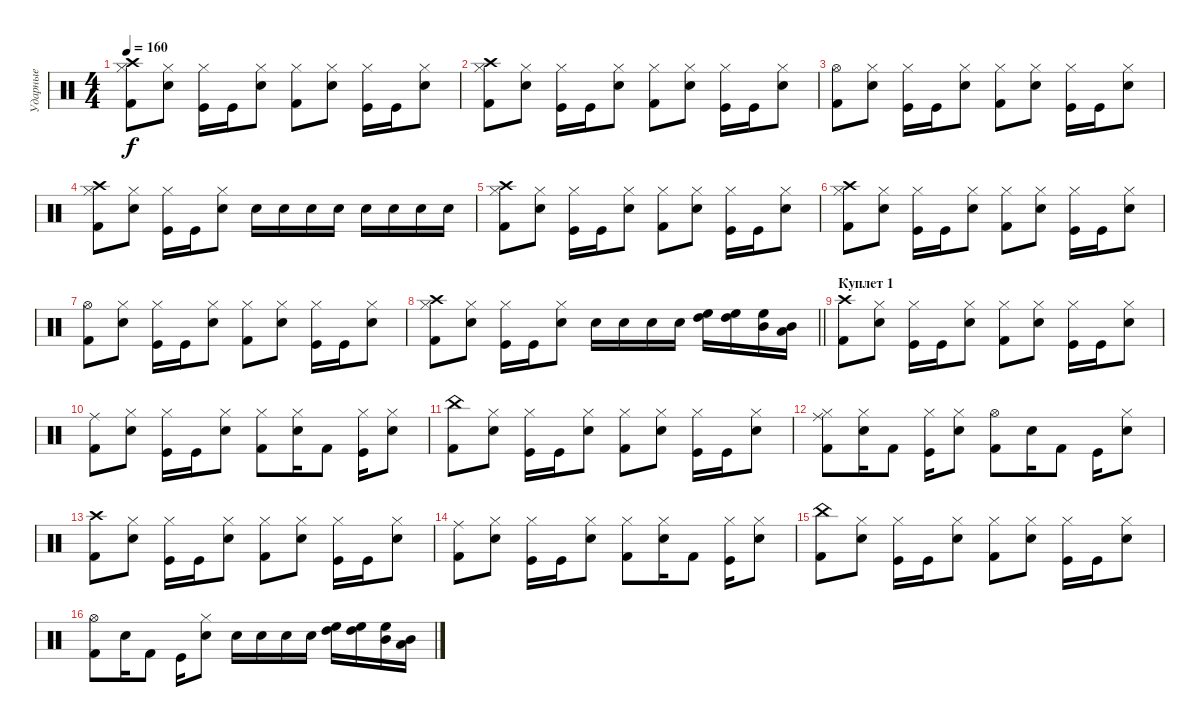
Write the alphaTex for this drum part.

\track ("Ударные" "Ударные") {instrument percussion}
\staff {score}
\articulation defaults
\ts (4 4)
\tempo 160
\clef neutral
\ks c
("Crash high (hit)" "Hi-Hat (closed)" "Kick (hit) 2").8{dy f} ("Hi-Hat (closed)" "Snare (hit) 2").8 ("Hi-Hat (closed)" "Kick (hit)").16 "Kick (hit)".16 ("Hi-Hat (closed)" "Snare (hit) 2").8 ("Hi-Hat (closed)" "Kick (hit) 2").8 ("Hi-Hat (closed)" "Snare (hit) 2").8 ("Hi-Hat (closed)" "Kick (hit)").16 "Kick (hit)".16 ("Hi-Hat (closed)" "Snare (hit) 2").8 |
("Crash high (hit)" "Hi-Hat (closed)" "Kick (hit) 2").8 ("Hi-Hat (closed)" "Snare (hit) 2").8 ("Hi-Hat (closed)" "Kick (hit)").16 "Kick (hit)".16 ("Hi-Hat (closed)" "Snare (hit) 2").8 ("Hi-Hat (closed)" "Kick (hit) 2").8 ("Hi-Hat (closed)" "Snare (hit) 2").8 ("Hi-Hat (closed)" "Kick (hit)").16 "Kick (hit)".16 ("Hi-Hat (closed)" "Snare (hit) 2").8 |
("Hi-Hat (open)" "Kick (hit) 2").8 ("Hi-Hat (closed)" "Snare (hit) 2").8 ("Hi-Hat (closed)" "Kick (hit)").16 "Kick (hit)".16 ("Hi-Hat (closed)" "Snare (hit) 2").8 ("Hi-Hat (closed)" "Kick (hit) 2").8 ("Hi-Hat (closed)" "Snare (hit) 2").8 ("Hi-Hat (closed)" "Kick (hit)").16 "Kick (hit)".16 ("Hi-Hat (closed)" "Snare (hit) 2").8 |
("Crash high (hit)" "Hi-Hat (closed)" "Kick (hit) 2").8 ("Hi-Hat (closed)" "Snare (hit) 2").8 ("Hi-Hat (closed)" "Kick (hit)").16 "Kick (hit)".16 ("Hi-Hat (closed)" "Snare (hit) 2").8 "Snare (hit) 2".16 "Snare (hit) 2".16 "Snare (hit) 2".16 "Snare (hit) 2".16 "Snare (hit) 2".16 "Snare (hit) 2".16 "Snare (hit) 2".16 "Snare (hit) 2".16 |
("Crash high (hit)" "Hi-Hat (closed)" "Kick (hit) 2").8 ("Hi-Hat (closed)" "Snare (hit) 2").8 ("Hi-Hat (closed)" "Kick (hit)").16 "Kick (hit)".16 ("Hi-Hat (closed)" "Snare (hit) 2").8 ("Hi-Hat (closed)" "Kick (hit) 2").8 ("Hi-Hat (closed)" "Snare (hit) 2").8 ("Hi-Hat (closed)" "Kick (hit)").16 "Kick (hit)".16 ("Hi-Hat (closed)" "Snare (hit) 2").8 |
("Crash high (hit)" "Hi-Hat (closed)" "Kick (hit) 2").8 ("Hi-Hat (closed)" "Snare (hit) 2").8 ("Hi-Hat (closed)" "Kick (hit)").16 "Kick (hit)".16 ("Hi-Hat (closed)" "Snare (hit) 2").8 ("Hi-Hat (closed)" "Kick (hit) 2").8 ("Hi-Hat (closed)" "Snare (hit) 2").8 ("Hi-Hat (closed)" "Kick (hit)").16 "Kick (hit)".16 ("Hi-Hat (closed)" "Snare (hit) 2").8 |
("Hi-Hat (open)" "Kick (hit) 2").8 ("Hi-Hat (closed)" "Snare (hit) 2").8 ("Hi-Hat (closed)" "Kick (hit)").16 "Kick (hit)".16 ("Hi-Hat (closed)" "Snare (hit) 2").8 ("Hi-Hat (closed)" "Kick (hit) 2").8 ("Hi-Hat (closed)" "Snare (hit) 2").8 ("Hi-Hat (closed)" "Kick (hit)").16 "Kick (hit)".16 ("Hi-Hat (closed)" "Snare (hit) 2").8 |
\barLineRight lightlight
("Crash high (hit)" "Hi-Hat (closed)" "Kick (hit) 2").8 ("Hi-Hat (closed)" "Snare (hit) 2").8 ("Hi-Hat (closed)" "Kick (hit)").16 "Kick (hit)".16 ("Hi-Hat (closed)" "Snare (hit) 2").8 "Snare (hit) 2".16 "Snare (hit) 2".16 "Snare (hit) 2".16 "Snare (hit) 2".16 ("High Tom (hit)" "High Floor Tom (hit)").16 ("High Floor Tom (hit)" "High Tom (hit)").16 ("High Floor Tom (hit)" "Mid Tom (hit)").16 ("Mid Tom (hit)" "Low Tom (hit)").16 |
\section ("" "Куплет 1")
("Crash high (hit)" "Kick (hit) 2").8 ("Hi-Hat (closed)" "Snare (hit) 2").8 ("Hi-Hat (closed)" "Kick (hit)").16 "Kick (hit)".16 ("Hi-Hat (closed)" "Snare (hit) 2").8 ("Hi-Hat (closed)" "Kick (hit) 2").8 ("Hi-Hat (closed)" "Snare (hit) 2").8 ("Hi-Hat (closed)" "Kick (hit)").16 "Kick (hit)".16 ("Hi-Hat (closed)" "Snare (hit) 2").8 |
("Ride (middle)" "Kick (hit) 2").8 ("Hi-Hat (closed)" "Snare (hit) 2").8 ("Hi-Hat (closed)" "Kick (hit)").16 "Kick (hit)".16 ("Hi-Hat (closed)" "Snare (hit) 2").8 ("Hi-Hat (closed)" "Kick (hit) 2").8 ("Hi-Hat (closed)" "Snare (hit) 2").16 "Kick (hit) 2".8 ("Hi-Hat (closed)" "Kick (hit)").16 ("Hi-Hat (closed)" "Snare (hit) 2").8 |
("China (hit)" "Kick (hit) 2").8 ("Hi-Hat (closed)" "Snare (hit) 2").8 ("Hi-Hat (closed)" "Kick (hit)").16 "Kick (hit)".16 ("Hi-Hat (closed)" "Snare (hit) 2").8 ("Hi-Hat (closed)" "Kick (hit) 2").8 ("Hi-Hat (closed)" "Snare (hit) 2").8 ("Hi-Hat (closed)" "Kick (hit)").16 "Kick (hit)".16 ("Hi-Hat (closed)" "Snare (hit) 2").8 |
("Ride (middle)" "Hi-Hat (closed)" "Kick (hit) 2").8 ("Hi-Hat (closed)" "Snare (hit) 2").16 "Kick (hit) 2".8 ("Hi-Hat (closed)" "Kick (hit)").16 ("Hi-Hat (closed)" "Snare (hit) 2").8 ("Hi-Hat (open)" "Kick (hit) 2").8 "Snare (hit) 2".16 "Kick (hit) 2".8 "Kick (hit)".16 ("Hi-Hat (closed)" "Snare (hit) 2").8 |
("Crash high (hit)" "Kick (hit) 2").8 ("Hi-Hat (closed)" "Snare (hit) 2").8 ("Hi-Hat (closed)" "Kick (hit)").16 "Kick (hit)".16 ("Hi-Hat (closed)" "Snare (hit) 2").8 ("Hi-Hat (closed)" "Kick (hit) 2").8 ("Hi-Hat (closed)" "Snare (hit) 2").8 ("Hi-Hat (closed)" "Kick (hit)").16 "Kick (hit)".16 ("Hi-Hat (closed)" "Snare (hit) 2").8 |
("Ride (middle)" "Kick (hit) 2").8 ("Hi-Hat (closed)" "Snare (hit) 2").8 ("Hi-Hat (closed)" "Kick (hit)").16 "Kick (hit)".16 ("Hi-Hat (closed)" "Snare (hit) 2").8 ("Hi-Hat (closed)" "Kick (hit) 2").8 ("Hi-Hat (closed)" "Snare (hit) 2").16 "Kick (hit) 2".8 ("Hi-Hat (closed)" "Kick (hit)").16 ("Hi-Hat (closed)" "Snare (hit) 2").8 |
("China (hit)" "Kick (hit) 2").8 ("Hi-Hat (closed)" "Snare (hit) 2").8 ("Hi-Hat (closed)" "Kick (hit)").16 "Kick (hit)".16 ("Hi-Hat (closed)" "Snare (hit) 2").8 ("Hi-Hat (closed)" "Kick (hit) 2").8 ("Hi-Hat (closed)" "Snare (hit) 2").8 ("Hi-Hat (closed)" "Kick (hit)").16 "Kick (hit)".16 ("Hi-Hat (closed)" "Snare (hit) 2").8 |
("Hi-Hat (open)" "Kick (hit) 2").8 "Snare (hit) 2".16 "Kick (hit) 2".8 "Kick (hit)".16 ("Hi-Hat (closed)" "Snare (hit) 2").8 "Snare (hit) 2".16 "Snare (hit) 2".16 "Snare (hit) 2".16 "Snare (hit) 2".16 ("High Tom (hit)" "High Floor Tom (hit)").16 ("High Floor Tom (hit)" "High Tom (hit)").16 ("High Floor Tom (hit)" "Mid Tom (hit)").16 ("Mid Tom (hit)" "Low Tom (hit)").16
